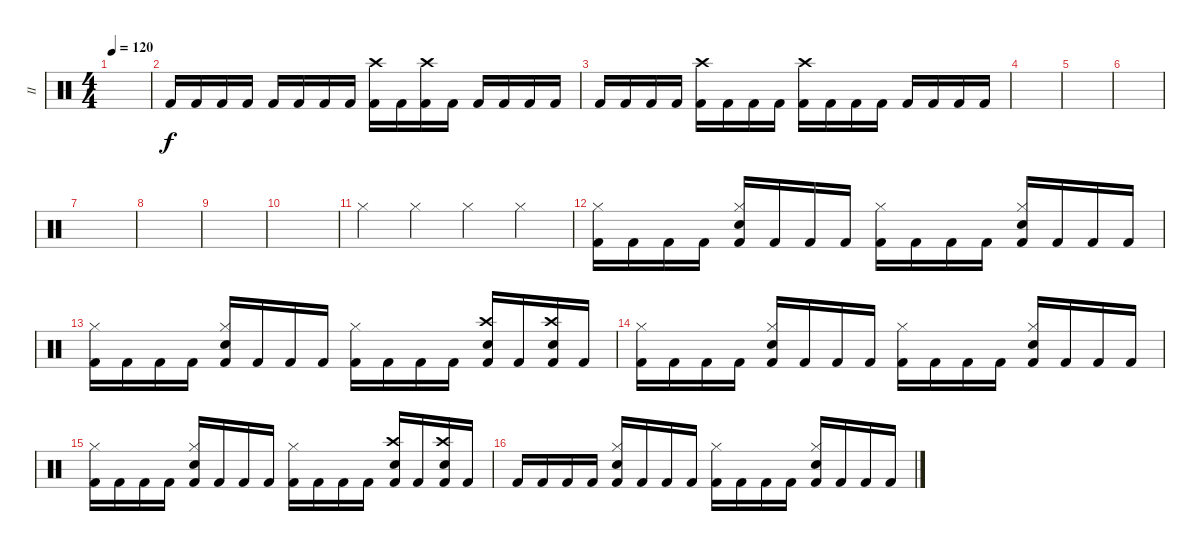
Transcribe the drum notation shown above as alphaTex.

\track ("II" "II") {instrument percussion}
\staff {score}
\articulation defaults
\ts (4 4)
\tempo 120
\clef neutral
\ks c
|
"Kick (hit) 2".16 "Kick (hit) 2".16 "Kick (hit) 2".16 "Kick (hit) 2".16 "Kick (hit) 2".16 "Kick (hit) 2".16 "Kick (hit) 2".16 "Kick (hit) 2".16 ("Kick (hit) 2" "Crash high (hit)").16 "Kick (hit) 2".16 ("Kick (hit) 2" "Crash high (hit)").16 "Kick (hit) 2".16 "Kick (hit) 2".16 "Kick (hit) 2".16 "Kick (hit) 2".16 "Kick (hit) 2".16 |
"Kick (hit) 2".16 "Kick (hit) 2".16 "Kick (hit) 2".16 "Kick (hit) 2".16 ("Kick (hit) 2" "Crash high (hit)").16 "Kick (hit) 2".16 "Kick (hit) 2".16 "Kick (hit) 2".16 ("Kick (hit) 2" "Crash high (hit)").16 "Kick (hit) 2".16 "Kick (hit) 2".16 "Kick (hit) 2".16 "Kick (hit) 2".16 "Kick (hit) 2".16 "Kick (hit) 2".16 "Kick (hit) 2".16 |
|
|
|
|
|
|
|
"Hi-Hat (closed)".4 "Hi-Hat (closed)".4 "Hi-Hat (closed)".4 "Hi-Hat (closed)".4 |
("Kick (hit) 2" "Hi-Hat (closed)").16 "Kick (hit) 2".16 "Kick (hit) 2".16 "Kick (hit) 2".16 ("Kick (hit) 2" "Hi-Hat (closed)" "Snare (hit) 2").16 "Kick (hit) 2".16 "Kick (hit) 2".16 "Kick (hit) 2".16 ("Kick (hit) 2" "Hi-Hat (closed)").16 "Kick (hit) 2".16 "Kick (hit) 2".16 "Kick (hit) 2".16 ("Kick (hit) 2" "Hi-Hat (closed)" "Snare (hit) 2").16 "Kick (hit) 2".16 "Kick (hit) 2".16 "Kick (hit) 2".16 |
("Kick (hit) 2" "Hi-Hat (closed)").16 "Kick (hit) 2".16 "Kick (hit) 2".16 "Kick (hit) 2".16 ("Kick (hit) 2" "Hi-Hat (closed)" "Snare (hit) 2").16 "Kick (hit) 2".16 "Kick (hit) 2".16 "Kick (hit) 2".16 ("Kick (hit) 2" "Hi-Hat (closed)").16 "Kick (hit) 2".16 "Kick (hit) 2".16 "Kick (hit) 2".16 ("Kick (hit) 2" "Crash high (hit)" "Snare (hit) 2").16 "Kick (hit) 2".16 ("Kick (hit) 2" "Crash high (hit)" "Snare (hit) 2").16 "Kick (hit) 2".16 |
("Kick (hit) 2" "Hi-Hat (closed)").16 "Kick (hit) 2".16 "Kick (hit) 2".16 "Kick (hit) 2".16 ("Kick (hit) 2" "Hi-Hat (closed)" "Snare (hit) 2").16 "Kick (hit) 2".16 "Kick (hit) 2".16 "Kick (hit) 2".16 ("Kick (hit) 2" "Hi-Hat (closed)").16 "Kick (hit) 2".16 "Kick (hit) 2".16 "Kick (hit) 2".16 ("Kick (hit) 2" "Hi-Hat (closed)" "Snare (hit) 2").16 "Kick (hit) 2".16 "Kick (hit) 2".16 "Kick (hit) 2".16 |
("Kick (hit) 2" "Hi-Hat (closed)").16 "Kick (hit) 2".16 "Kick (hit) 2".16 "Kick (hit) 2".16 ("Kick (hit) 2" "Hi-Hat (closed)" "Snare (hit) 2").16 "Kick (hit) 2".16 "Kick (hit) 2".16 "Kick (hit) 2".16 ("Kick (hit) 2" "Hi-Hat (closed)").16 "Kick (hit) 2".16 "Kick (hit) 2".16 "Kick (hit) 2".16 ("Kick (hit) 2" "Crash high (hit)" "Snare (hit) 2").16 "Kick (hit) 2".16 ("Kick (hit) 2" "Crash high (hit)" "Snare (hit) 2").16 "Kick (hit) 2".16 |
"Kick (hit) 2".16 "Kick (hit) 2".16 "Kick (hit) 2".16 "Kick (hit) 2".16 ("Kick (hit) 2" "Hi-Hat (closed)" "Snare (hit) 2").16 "Kick (hit) 2".16 "Kick (hit) 2".16 "Kick (hit) 2".16 ("Kick (hit) 2" "Hi-Hat (closed)").16 "Kick (hit) 2".16 "Kick (hit) 2".16 "Kick (hit) 2".16 ("Kick (hit) 2" "Hi-Hat (closed)" "Snare (hit) 2").16 "Kick (hit) 2".16 "Kick (hit) 2".16 "Kick (hit) 2".16
